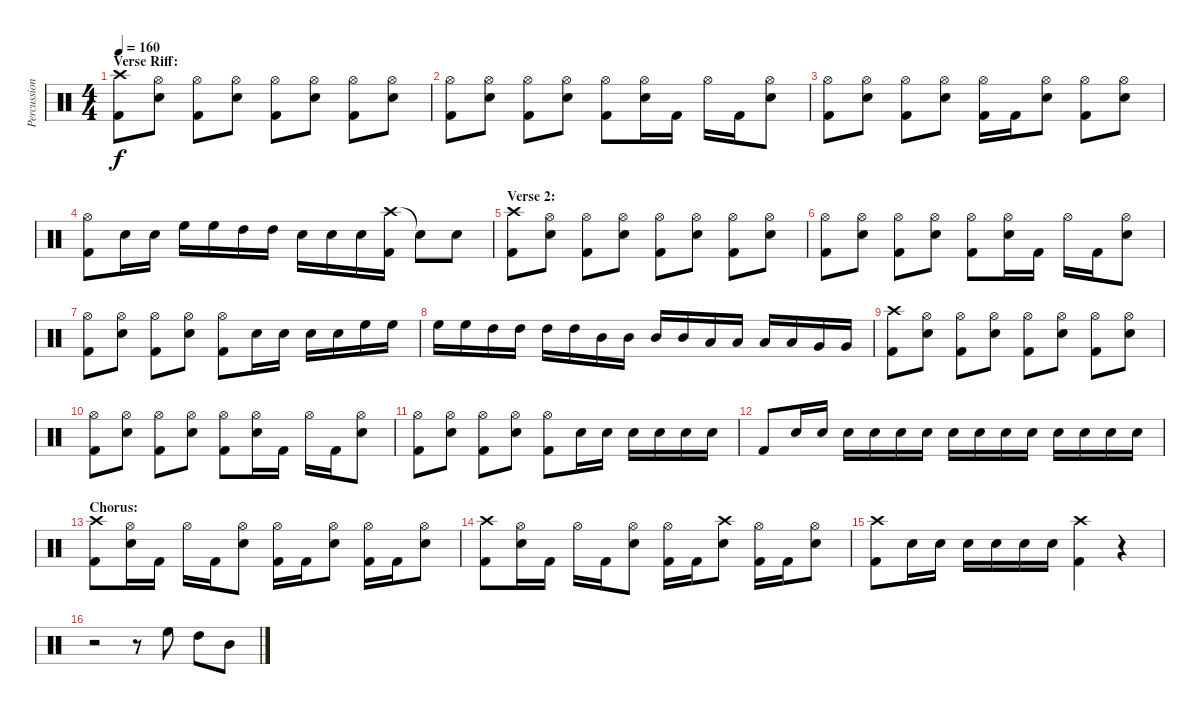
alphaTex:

\track ("Percussion" "Percussion") {instrument percussion}
\staff {score}
\articulation defaults
\ts (4 4)
\section ("" "Verse Riff:")
\tempo 160
\clef neutral
\ks c
("Crash high (hit)" "Kick (hit) 2").8{dy f} ("Hi-Hat (open)" "Snare (hit) 2").8 ("Hi-Hat (open)" "Kick (hit) 2").8 ("Hi-Hat (open)" "Snare (hit) 2").8 ("Hi-Hat (open)" "Kick (hit) 2").8 ("Hi-Hat (open)" "Snare (hit) 2").8 ("Hi-Hat (open)" "Kick (hit) 2").8 ("Hi-Hat (open)" "Snare (hit) 2").8 |
("Hi-Hat (open)" "Kick (hit) 2").8 ("Hi-Hat (open)" "Snare (hit) 2").8 ("Hi-Hat (open)" "Kick (hit) 2").8 ("Hi-Hat (open)" "Snare (hit) 2").8 ("Hi-Hat (open)" "Kick (hit) 2").8 ("Hi-Hat (open)" "Snare (hit) 2").16 "Kick (hit) 2".16 "Hi-Hat (open)".16 "Kick (hit) 2".16 ("Hi-Hat (open)" "Snare (hit) 2").8 |
("Hi-Hat (open)" "Kick (hit) 2").8 ("Hi-Hat (open)" "Snare (hit) 2").8 ("Hi-Hat (open)" "Kick (hit) 2").8 ("Hi-Hat (open)" "Snare (hit) 2").8 ("Hi-Hat (open)" "Kick (hit) 2").16 "Kick (hit) 2".16 ("Hi-Hat (open)" "Snare (hit) 2").8 ("Hi-Hat (open)" "Kick (hit) 2").8 ("Hi-Hat (open)" "Snare (hit) 2").8 |
("Hi-Hat (open)" "Kick (hit) 2").8 "Snare (hit) 2".16 "Snare (hit) 2".16 "High Floor Tom (hit)".16 "High Floor Tom (hit)".16 "High Tom (hit)".16 "High Tom (hit)".16 "Snare (hit) 2".16 "Snare (hit) 2".16 "Snare (hit) 2".16 ("Crash high (hit)" "Kick (hit) 2").16 "Snare (hit)"{t}.8 "Snare (hit) 2".8 |
\section ("" "Verse 2:")
("Crash high (hit)" "Kick (hit) 2").8 ("Hi-Hat (open)" "Snare (hit) 2").8 ("Hi-Hat (open)" "Kick (hit) 2").8 ("Hi-Hat (open)" "Snare (hit) 2").8 ("Hi-Hat (open)" "Kick (hit) 2").8 ("Hi-Hat (open)" "Snare (hit) 2").8 ("Hi-Hat (open)" "Kick (hit) 2").8 ("Hi-Hat (open)" "Snare (hit) 2").8 |
("Hi-Hat (open)" "Kick (hit) 2").8 ("Hi-Hat (open)" "Snare (hit) 2").8 ("Hi-Hat (open)" "Kick (hit) 2").8 ("Hi-Hat (open)" "Snare (hit) 2").8 ("Hi-Hat (open)" "Kick (hit) 2").8 ("Hi-Hat (open)" "Snare (hit) 2").16 "Kick (hit) 2".16 "Hi-Hat (open)".16 "Kick (hit) 2".16 ("Hi-Hat (open)" "Snare (hit) 2").8 |
("Hi-Hat (open)" "Kick (hit) 2").8 ("Hi-Hat (open)" "Snare (hit) 2").8 ("Hi-Hat (open)" "Kick (hit) 2").8 ("Hi-Hat (open)" "Snare (hit) 2").8 ("Hi-Hat (open)" "Kick (hit) 2").8 "Snare (hit) 2".16 "Snare (hit) 2".16 "Snare (hit) 2".16 "Snare (hit) 2".16 "High Floor Tom (hit)".16 "High Floor Tom (hit)".16 |
"High Floor Tom (hit)".16 "High Floor Tom (hit)".16 "High Tom (hit)".16 "High Tom (hit)".16 "High Tom (hit)".16 "High Tom (hit)".16 "Mid Tom (hit)".16 "Mid Tom (hit)".16 "Mid Tom (hit)".16 "Mid Tom (hit)".16 "Low Tom (hit)".16 "Low Tom (hit)".16 "Low Tom (hit)".16 "Low Tom (hit)".16 "Very Low Tom (hit)".16 "Very Low Tom (hit)".16 |
("Crash high (hit)" "Kick (hit) 2").8 ("Hi-Hat (open)" "Snare (hit) 2").8 ("Hi-Hat (open)" "Kick (hit) 2").8 ("Hi-Hat (open)" "Snare (hit) 2").8 ("Hi-Hat (open)" "Kick (hit) 2").8 ("Hi-Hat (open)" "Snare (hit) 2").8 ("Hi-Hat (open)" "Kick (hit) 2").8 ("Hi-Hat (open)" "Snare (hit) 2").8 |
("Hi-Hat (open)" "Kick (hit) 2").8 ("Hi-Hat (open)" "Snare (hit) 2").8 ("Hi-Hat (open)" "Kick (hit) 2").8 ("Hi-Hat (open)" "Snare (hit) 2").8 ("Hi-Hat (open)" "Kick (hit) 2").8 ("Hi-Hat (open)" "Snare (hit) 2").16 "Kick (hit) 2".16 "Hi-Hat (open)".16 "Kick (hit) 2".16 ("Hi-Hat (open)" "Snare (hit) 2").8 |
("Hi-Hat (open)" "Kick (hit) 2").8 ("Hi-Hat (open)" "Snare (hit) 2").8 ("Hi-Hat (open)" "Kick (hit) 2").8 ("Hi-Hat (open)" "Snare (hit) 2").8 ("Hi-Hat (open)" "Kick (hit) 2").8 "Snare (hit) 2".16 "Snare (hit) 2".16 "Snare (hit) 2".16 "Snare (hit) 2".16 "Snare (hit) 2".16 "Snare (hit) 2".16 |
"Kick (hit) 2".8 "Snare (hit) 2".16 "Snare (hit) 2".16 "Snare (hit) 2".16 "Snare (hit) 2".16 "Snare (hit) 2".16 "Snare (hit) 2".16 "Snare (hit) 2".16 "Snare (hit) 2".16 "Snare (hit) 2".16 "Snare (hit) 2".16 "Snare (hit) 2".16 "Snare (hit) 2".16 "Snare (hit) 2".16 "Snare (hit) 2".16 |
\section ("" "Chorus:")
("Crash high (hit)" "Kick (hit) 2").8 ("Hi-Hat (open)" "Snare (hit) 2").16 "Kick (hit) 2".16 "Hi-Hat (open)".16 "Kick (hit) 2".16 ("Hi-Hat (open)" "Snare (hit) 2").8 ("Hi-Hat (open)" "Kick (hit) 2").16 "Kick (hit) 2".16 ("Hi-Hat (open)" "Snare (hit) 2").8 ("Hi-Hat (open)" "Kick (hit) 2").16 "Kick (hit) 2".16 ("Hi-Hat (open)" "Snare (hit) 2").8 |
("Crash high (hit)" "Kick (hit) 2").8 ("Hi-Hat (open)" "Snare (hit) 2").16 "Kick (hit) 2".16 "Hi-Hat (open)".16 "Kick (hit) 2".16 ("Hi-Hat (open)" "Snare (hit) 2").8 ("Hi-Hat (open)" "Kick (hit) 2").16 "Kick (hit) 2".16 ("Crash high (hit)" "Snare (hit) 2").8 ("Hi-Hat (open)" "Kick (hit) 2").16 "Kick (hit) 2".16 ("Hi-Hat (open)" "Snare (hit) 2").8 |
("Crash high (hit)" "Kick (hit) 2").8 "Snare (hit) 2".16 "Snare (hit) 2".16 "Snare (hit) 2".16 "Snare (hit) 2".16 "Snare (hit) 2".16 "Snare (hit) 2".16 ("Crash high (hit)" "Kick (hit) 2").4 r.4 |
r.2 r.8 "High Floor Tom (hit)".8 "High Tom (hit)".8 "Mid Tom (hit)".8
